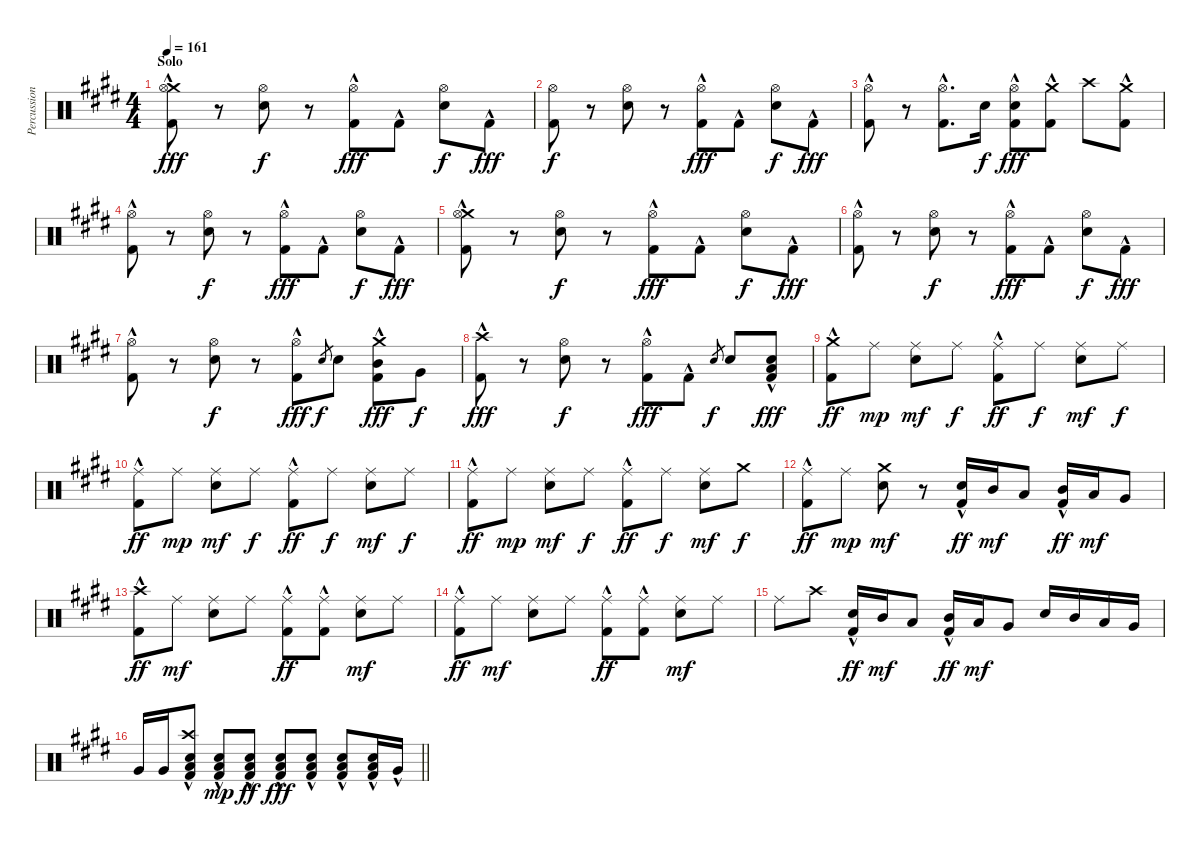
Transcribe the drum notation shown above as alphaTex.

\track ("Percussion" "Percussion") {instrument percussion}
\staff
\articulation defaults
\ts (4 4)
\section ("" "Solo")
\tempo 161
\clef neutral
\ks e
("Crash medium (hit)" "Hi-Hat (open)" "Kick (hit) 2"{hac}).8{dy fff} r.8 ("Hi-Hat (open)" "Snare (hit) 2").8{dy f} r.8 ("Hi-Hat (open)" "Kick (hit) 2"{hac}).8{dy fff} "Kick (hit) 2"{hac}.8 ("Hi-Hat (open)" "Snare (hit) 2").8{dy f} "Kick (hit) 2"{hac}.8{dy fff} |
("Hi-Hat (open)" "Kick (hit) 2").8{dy f} r.8 ("Hi-Hat (open)" "Snare (hit) 2").8 r.8 ("Hi-Hat (open)" "Kick (hit) 2"{hac}).8{dy fff} "Kick (hit) 2"{hac}.8 ("Hi-Hat (open)" "Snare (hit) 2").8{dy f} "Kick (hit) 2"{hac}.8{dy fff} |
("Hi-Hat (open)" "Kick (hit) 2"{hac}).8 r.8 ("Hi-Hat (open)" "Kick (hit) 2"{hac}).8{d} "Snare (hit) 2".16{dy f} ("Hi-Hat (open)" "Snare (hit) 2" "Kick (hit) 2"{hac}).8{dy fff} ("Crash medium (hit)" "Kick (hit) 2"{hac}).8 "Crash high (hit)".8 ("Crash medium (hit)" "Kick (hit) 2"{hac}).8 |
("Hi-Hat (open)" "Kick (hit) 2"{hac}).8 r.8 ("Hi-Hat (open)" "Snare (hit) 2").8{dy f} r.8 ("Hi-Hat (open)" "Kick (hit) 2"{hac}).8{dy fff} "Kick (hit) 2"{hac}.8 ("Hi-Hat (open)" "Snare (hit) 2").8{dy f} "Kick (hit) 2"{hac}.8{dy fff} |
("Crash medium (hit)" "Hi-Hat (open)" "Kick (hit) 2"{hac}).8 r.8 ("Hi-Hat (open)" "Snare (hit) 2").8{dy f} r.8 ("Hi-Hat (open)" "Kick (hit) 2"{hac}).8{dy fff} "Kick (hit) 2"{hac}.8 ("Hi-Hat (open)" "Snare (hit) 2").8{dy f} "Kick (hit) 2"{hac}.8{dy fff} |
("Hi-Hat (open)" "Kick (hit) 2"{hac}).8 r.8 ("Hi-Hat (open)" "Snare (hit) 2").8{dy f} r.8 ("Hi-Hat (open)" "Kick (hit) 2"{hac}).8{dy fff} "Kick (hit) 2"{hac}.8 ("Hi-Hat (open)" "Snare (hit) 2").8{dy f} "Kick (hit) 2"{hac}.8{dy fff} |
("Hi-Hat (open)" "Kick (hit) 2"{hac}).8 r.8 ("Hi-Hat (open)" "Snare (hit) 2").8{dy f} r.8 ("Hi-Hat (open)" "Kick (hit) 2"{hac}).8{dy fff} "Snare (hit) 2".8{gr dy f} "Snare (hit) 2".8 ("Crash medium (hit)" "Mid Tom (hit)" "Kick (hit) 2"{hac}).8{dy fff} "Very Low Tom (hit)".8{dy f} |
("Crash high (hit)" "Kick (hit) 2"{hac}).8{dy fff} r.8 ("Hi-Hat (open)" "Snare (hit) 2").8{dy f} r.8 ("Hi-Hat (open)" "Kick (hit) 2"{hac}).8{dy fff} "Kick (hit) 2"{hac}.8 "Snare (hit) 2".8{gr dy f} "Snare (hit) 2".8 ("Snare (hit) 2" "Low Tom (hit)"{hac} "Kick (hit) 2"{hac}).8{dy fff} |
("Crash medium (hit)" "Kick (hit) 2"{hac}).8{dy ff} "Ride (middle)".8{dy mp} ("Ride (middle)" "Snare (hit) 2").8{dy mf} "Ride (middle)".8{dy f} ("Ride (middle)" "Kick (hit) 2"{hac}).8{dy ff} "Ride (middle)".8{dy f} ("Ride (middle)" "Snare (hit) 2").8{dy mf} "Ride (middle)".8{dy f} |
("Ride (middle)" "Kick (hit) 2"{hac}).8{dy ff} "Ride (middle)".8{dy mp} ("Ride (middle)" "Snare (hit) 2").8{dy mf} "Ride (middle)".8{dy f} ("Ride (middle)" "Kick (hit) 2"{hac}).8{dy ff} "Ride (middle)".8{dy f} ("Ride (middle)" "Snare (hit) 2").8{dy mf} "Ride (middle)".8{dy f} |
("Ride (middle)" "Kick (hit) 2"{hac}).8{dy ff} "Ride (middle)".8{dy mp} ("Ride (middle)" "Snare (hit) 2").8{dy mf} "Ride (middle)".8{dy f} ("Ride (middle)" "Kick (hit) 2"{hac}).8{dy ff} "Ride (middle)".8{dy f} ("Ride (middle)" "Snare (hit) 2").8{dy mf} "Crash medium (hit)".8{dy f} |
("Ride (middle)" "Kick (hit) 2"{hac}).8{dy ff} "Ride (middle)".8{dy mp} ("Crash medium (hit)" "Snare (hit) 2").8{dy mf} r.8 ("Snare (hit) 2" "Kick (hit) 2"{hac}).16{dy ff} "Mid Tom (hit)".16{dy mf} "Low Tom (hit)".8 ("Mid Tom (hit)" "Kick (hit) 2"{hac}).16{dy ff} "Low Tom (hit)".16{dy mf} "Very Low Tom (hit)".8 |
("Crash high (hit)" "Kick (hit) 2"{hac}).8{dy ff} "Ride (middle)".8{dy mf} ("Ride (middle)" "Snare (hit) 2").8 "Ride (middle)".8 ("Ride (middle)" "Kick (hit) 2"{hac}).8{dy ff} ("Ride (middle)" "Kick (hit) 2"{hac}).8 ("Ride (middle)" "Snare (hit) 2").8{dy mf} "Ride (middle)".8 |
("Ride (middle)" "Kick (hit) 2"{hac}).8{dy ff} "Ride (middle)".8{dy mf} ("Ride (middle)" "Snare (hit) 2").8 "Ride (middle)".8 ("Ride (middle)" "Kick (hit) 2"{hac}).8{dy ff} ("Ride (middle)" "Kick (hit) 2"{hac}).8 ("Ride (middle)" "Snare (hit) 2").8{dy mf} "Ride (middle)".8 |
"Ride (middle)".8 "Crash high (hit)".8 ("Snare (hit) 2" "Kick (hit) 2"{hac}).16{dy ff} "Mid Tom (hit)".16{dy mf} "Low Tom (hit)".8 ("Mid Tom (hit)" "Kick (hit) 2"{hac}).16{dy ff} "Low Tom (hit)".16{dy mf} "Very Low Tom (hit)".8 "Snare (hit) 2".16 "Mid Tom (hit)".16 "Low Tom (hit)".16 "Very Low Tom (hit)".16 |
\barLineRight lightlight "Very Low Tom (hit)".16 "Very Low Tom (hit)".16
("Crash high (hit)" "Snare (hit) 2" "Low Tom (hit)" "Kick (hit) 2"{hac}).8 ("Snare (hit) 2" "Low Tom (hit)" "Kick (hit) 2"{hac}).8{dy mp} ("Snare (hit) 2" "Low Tom (hit)" "Kick (hit) 2"{hac}).8{dy ff} ("Snare (hit) 2" "Low Tom (hit)" "Kick (hit) 2"{hac}).8{dy fff} ("Snare (hit) 2" "Low Tom (hit)" "Kick (hit) 2"{hac}).8 ("Snare (hit) 2" "Low Tom (hit)" "Kick (hit) 2"{hac}).8 ("Snare (hit) 2"{hac} "Low Tom (hit)"{hac} "Kick (hit) 2").16 "Very Low Tom (hit)"{hac}.16
